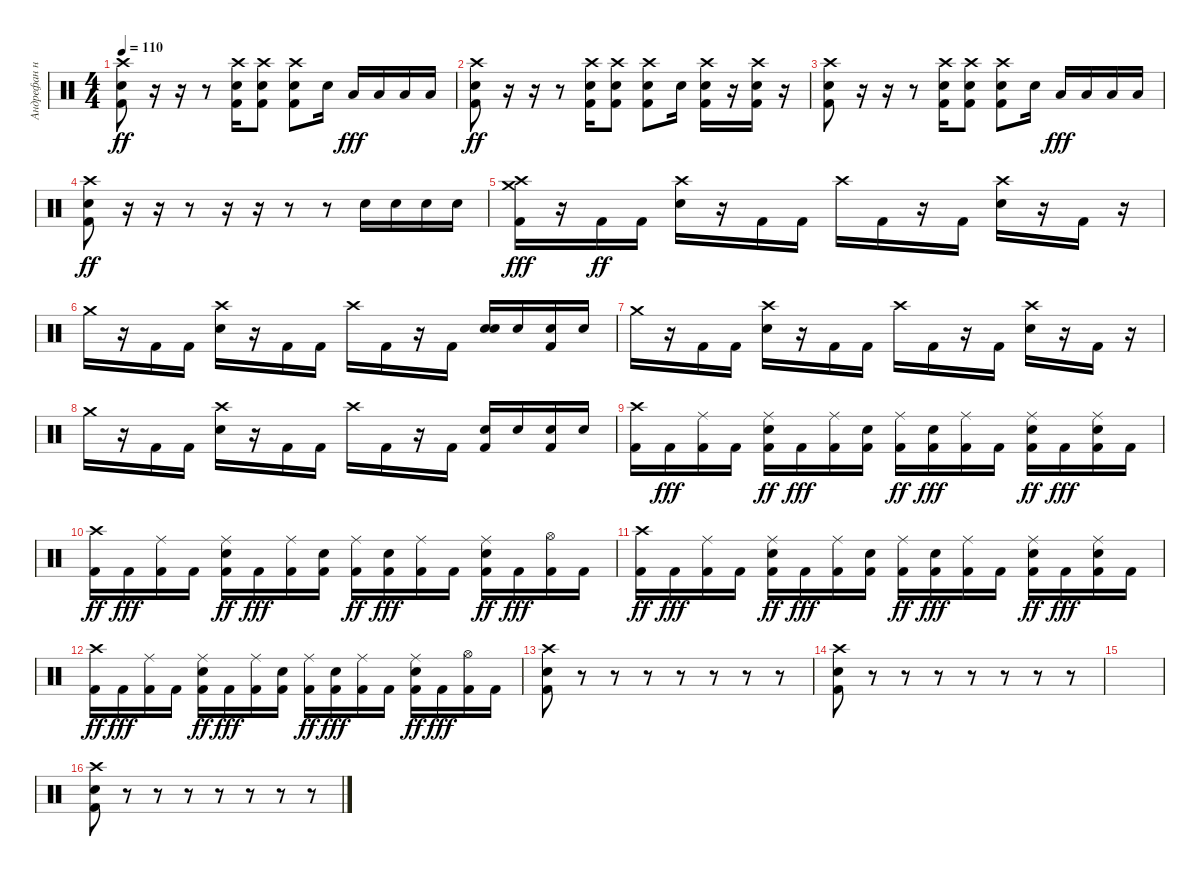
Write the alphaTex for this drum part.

\track ("Андрефан на драмах" "Андрефан н") {instrument percussion}
\staff {score}
\articulation defaults
\ts (4 4)
\tempo 110
\clef neutral
\ks c
("Crash high (hit)" "Electric Snare (hit)" "Kick (hit) 2").8{dy ff} r.16 r.16 r.8 ("Crash high (hit)" "Electric Snare (hit)" "Kick (hit) 2").16 ("Crash high (hit)" "Electric Snare (hit)" "Kick (hit) 2").8 ("Crash high (hit)" "Electric Snare (hit)" "Kick (hit) 2").8 "Electric Snare (hit)".16 "Low Floor Tom (hit)".16{dy fff} "Low Floor Tom (hit)".16 "Low Tom (hit)".16 "Low Tom (hit)".16 |
("Crash high (hit)" "Electric Snare (hit)" "Kick (hit) 2").8{dy ff} r.16 r.16 r.8 ("Crash high (hit)" "Electric Snare (hit)" "Kick (hit) 2").16 ("Crash high (hit)" "Electric Snare (hit)" "Kick (hit) 2").8 ("Crash high (hit)" "Electric Snare (hit)" "Kick (hit) 2").8 "Electric Snare (hit)".16 ("Kick (hit) 2" "Crash high (hit)" "Electric Snare (hit)").16 r.16 ("Kick (hit) 2" "Crash high (hit)" "Electric Snare (hit)").16 r.16 |
("Crash high (hit)" "Electric Snare (hit)" "Kick (hit) 2").8 r.16 r.16 r.8 ("Crash high (hit)" "Electric Snare (hit)" "Kick (hit) 2").16 ("Crash high (hit)" "Electric Snare (hit)" "Kick (hit) 2").8 ("Crash high (hit)" "Electric Snare (hit)" "Kick (hit) 2").8 "Electric Snare (hit)".16 "Low Floor Tom (hit)".16{dy fff} "Low Floor Tom (hit)".16 "Low Tom (hit)".16 "Low Tom (hit)".16 |
("Crash high (hit)" "Electric Snare (hit)" "Kick (hit) 2").8{dy ff} r.16 r.16 r.8 r.16 r.16 r.8 r.8 "Electric Snare (hit)".16 "Electric Snare (hit)".16 "Electric Snare (hit)".16 "Electric Snare (hit)".16 |
("Crash medium (hit)" "Kick (hit) 2" "Crash high (hit)").16{dy fff} r.16 "Kick (hit) 2".16{dy ff} "Kick (hit) 2".16 ("Electric Snare (hit)" "Crash high (hit)").16 r.16 "Kick (hit) 2".16 "Kick (hit) 2".16 "Crash high (hit)".16 "Kick (hit) 2".16 r.16 "Kick (hit) 2".16 ("Electric Snare (hit)" "Crash high (hit)").16 r.16 "Kick (hit) 2".16 r.16 |
"Crash medium (hit)".16 r.16 "Kick (hit) 2".16 "Kick (hit) 2".16 ("Electric Snare (hit)" "Crash high (hit)").16 r.16 "Kick (hit) 2".16 "Kick (hit) 2".16 "Crash high (hit)".16 "Kick (hit) 2".16 r.16 "Kick (hit) 2".16 ("Electric Snare (hit)" "Electric Snare (hit)").16 "Electric Snare (hit)".16 ("Electric Snare (hit)" "Kick (hit) 2").16 "Electric Snare (hit)".16 |
"Crash medium (hit)".16 r.16 "Kick (hit) 2".16 "Kick (hit) 2".16 ("Electric Snare (hit)" "Crash high (hit)").16 r.16 "Kick (hit) 2".16 "Kick (hit) 2".16 "Crash high (hit)".16 "Kick (hit) 2".16 r.16 "Kick (hit) 2".16 ("Electric Snare (hit)" "Crash high (hit)").16 r.16 "Kick (hit) 2".16 r.16 |
"Crash medium (hit)".16 r.16 "Kick (hit) 2".16 "Kick (hit) 2".16 ("Electric Snare (hit)" "Crash high (hit)").16 r.16 "Kick (hit) 2".16 "Kick (hit) 2".16 "Crash high (hit)".16 "Kick (hit) 2".16 r.16 "Kick (hit) 2".16 ("Electric Snare (hit)" "Kick (hit) 2").16 "Electric Snare (hit)".16 ("Electric Snare (hit)" "Kick (hit) 2").16 "Electric Snare (hit)".16 |
("Crash high (hit)" "Kick (hit) 2").16 "Kick (hit) 2".16{dy fff} ("Ride (middle)" "Kick (hit) 2").16 "Kick (hit) 2".16 ("Ride (middle)" "Electric Snare (hit)" "Kick (hit) 2").16{dy ff} "Kick (hit) 2".16{dy fff} ("Ride (middle)" "Kick (hit) 2").16 ("Electric Snare (hit)" "Kick (hit) 2").16 ("Ride (middle)" "Kick (hit) 2").16{dy ff} ("Electric Snare (hit)" "Kick (hit) 2").16{dy fff} ("Ride (middle)" "Kick (hit) 2").16 "Kick (hit) 2".16 ("Ride (middle)" "Electric Snare (hit)" "Kick (hit) 2").16{dy ff} "Kick (hit) 2".16{dy fff} ("Ride (middle)" "Electric Snare (hit)" "Kick (hit) 2").16 "Kick (hit) 2".16 |
("Crash high (hit)" "Kick (hit) 2").16{dy ff} "Kick (hit) 2".16{dy fff} ("Ride (middle)" "Kick (hit) 2").16 "Kick (hit) 2".16 ("Ride (middle)" "Electric Snare (hit)" "Kick (hit) 2").16{dy ff} "Kick (hit) 2".16{dy fff} ("Ride (middle)" "Kick (hit) 2").16 ("Electric Snare (hit)" "Kick (hit) 2").16 ("Ride (middle)" "Kick (hit) 2").16{dy ff} ("Electric Snare (hit)" "Kick (hit) 2").16{dy fff} ("Ride (middle)" "Kick (hit) 2").16 "Kick (hit) 2".16 ("Ride (middle)" "Electric Snare (hit)" "Kick (hit) 2").16{dy ff} "Kick (hit) 2".16{dy fff} ("Hi-Hat (open)" "Kick (hit) 2").16 "Kick (hit) 2".16 |
("Crash high (hit)" "Kick (hit) 2").16{dy ff} "Kick (hit) 2".16{dy fff} ("Ride (middle)" "Kick (hit) 2").16 "Kick (hit) 2".16 ("Ride (middle)" "Electric Snare (hit)" "Kick (hit) 2").16{dy ff} "Kick (hit) 2".16{dy fff} ("Ride (middle)" "Kick (hit) 2").16 ("Electric Snare (hit)" "Kick (hit) 2").16 ("Ride (middle)" "Kick (hit) 2").16{dy ff} ("Electric Snare (hit)" "Kick (hit) 2").16{dy fff} ("Ride (middle)" "Kick (hit) 2").16 "Kick (hit) 2".16 ("Ride (middle)" "Electric Snare (hit)" "Kick (hit) 2").16{dy ff} "Kick (hit) 2".16{dy fff} ("Ride (middle)" "Electric Snare (hit)" "Kick (hit) 2").16 "Kick (hit) 2".16 |
("Crash high (hit)" "Kick (hit) 2").16{dy ff} "Kick (hit) 2".16{dy fff} ("Ride (middle)" "Kick (hit) 2").16 "Kick (hit) 2".16 ("Ride (middle)" "Electric Snare (hit)" "Kick (hit) 2").16{dy ff} "Kick (hit) 2".16{dy fff} ("Ride (middle)" "Kick (hit) 2").16 ("Electric Snare (hit)" "Kick (hit) 2").16 ("Ride (middle)" "Kick (hit) 2").16{dy ff} ("Electric Snare (hit)" "Kick (hit) 2").16{dy fff} ("Ride (middle)" "Kick (hit) 2").16 "Kick (hit) 2".16 ("Ride (middle)" "Electric Snare (hit)" "Kick (hit) 2").16{dy ff} "Kick (hit) 2".16{dy fff} ("Hi-Hat (open)" "Kick (hit) 2").16 "Kick (hit) 2".16 |
("Crash high (hit)" "Kick (hit) 2" "Electric Snare (hit)").8 r.8 r.8 r.8 r.8 r.8 r.8 r.8 |
("Crash high (hit)" "Kick (hit) 2" "Electric Snare (hit)").8 r.8 r.8 r.8 r.8 r.8 r.8 r.8 |
|
("Crash high (hit)" "Kick (hit) 2" "Electric Snare (hit)").8 r.8 r.8 r.8 r.8 r.8 r.8 r.8
